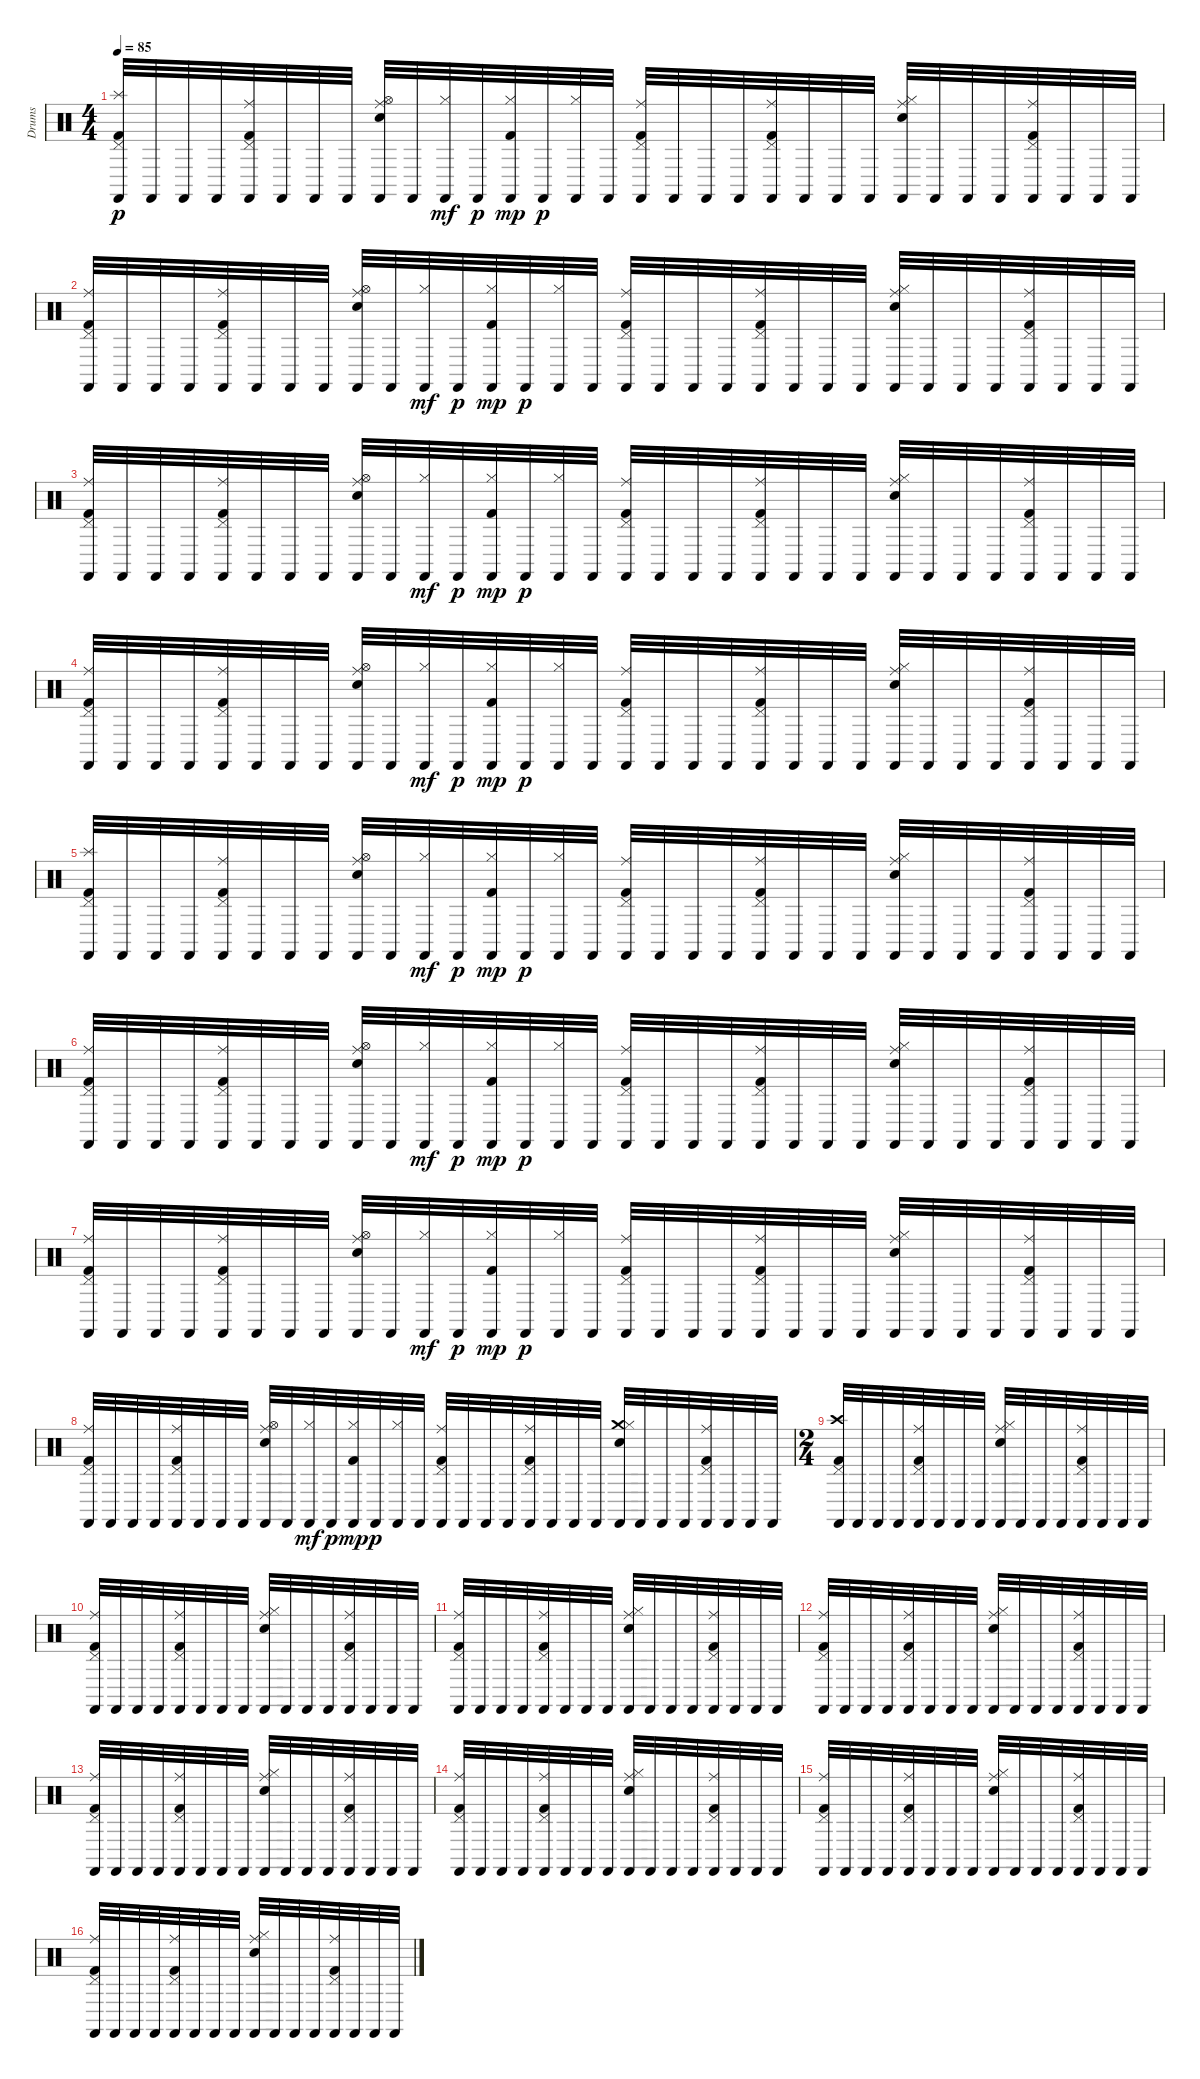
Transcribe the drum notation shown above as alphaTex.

\track ("Drums" "Drums") {instrument percussion}
\staff {score}
\articulation defaults
\ts (4 4)
\tempo 85
\clef neutral
\ks c
("Splash (hit)" "Castanets (hit)" "Pedal Hi-Hat (hit)" "Kick (hit) 2").32{dy p} "Castanets (hit)".32 "Castanets (hit)".32 "Castanets (hit)".32 ("Ride (middle)" "Castanets (hit)" "Pedal Hi-Hat (hit)" "Kick (hit) 2").32 "Castanets (hit)".32 "Castanets (hit)".32 "Castanets (hit)".32 ("Ride (middle)" "Castanets (hit)" "Hi-Hat (open)" "Electric Snare (hit)").32 "Castanets (hit)".32 ("Castanets (hit)" "Hi-Hat (closed)").32{dy mf} "Castanets (hit)".32{dy p} ("Castanets (hit)" "Hi-Hat (closed)" "Kick (hit) 2").32{dy mp} "Castanets (hit)".32{dy p} ("Castanets (hit)" "Hi-Hat (closed)").32 "Castanets (hit)".32 ("Ride (middle)" "Castanets (hit)" "Pedal Hi-Hat (hit)" "Kick (hit) 2").32 "Castanets (hit)".32 "Castanets (hit)".32 "Castanets (hit)".32 ("Ride (middle)" "Castanets (hit)" "Pedal Hi-Hat (hit)" "Kick (hit) 2").32 "Castanets (hit)".32 "Castanets (hit)".32 "Castanets (hit)".32 ("Ride (middle)" "Castanets (hit)" "Hi-Hat (closed)" "Electric Snare (hit)").32 "Castanets (hit)".32 "Castanets (hit)".32 "Castanets (hit)".32 ("Ride (middle)" "Castanets (hit)" "Pedal Hi-Hat (hit)" "Kick (hit) 2").32 "Castanets (hit)".32 "Castanets (hit)".32 "Castanets (hit)".32 |
("Ride (middle)" "Castanets (hit)" "Pedal Hi-Hat (hit)" "Kick (hit) 2").32 "Castanets (hit)".32 "Castanets (hit)".32 "Castanets (hit)".32 ("Ride (middle)" "Castanets (hit)" "Pedal Hi-Hat (hit)" "Kick (hit) 2").32 "Castanets (hit)".32 "Castanets (hit)".32 "Castanets (hit)".32 ("Ride (middle)" "Castanets (hit)" "Hi-Hat (open)" "Electric Snare (hit)").32 "Castanets (hit)".32 ("Castanets (hit)" "Hi-Hat (closed)").32{dy mf} "Castanets (hit)".32{dy p} ("Castanets (hit)" "Hi-Hat (closed)" "Kick (hit) 2").32{dy mp} "Castanets (hit)".32{dy p} ("Castanets (hit)" "Hi-Hat (closed)").32 "Castanets (hit)".32 ("Ride (middle)" "Castanets (hit)" "Pedal Hi-Hat (hit)" "Kick (hit) 2").32 "Castanets (hit)".32 "Castanets (hit)".32 "Castanets (hit)".32 ("Ride (middle)" "Castanets (hit)" "Pedal Hi-Hat (hit)" "Kick (hit) 2").32 "Castanets (hit)".32 "Castanets (hit)".32 "Castanets (hit)".32 ("Ride (middle)" "Castanets (hit)" "Hi-Hat (closed)" "Electric Snare (hit)").32 "Castanets (hit)".32 "Castanets (hit)".32 "Castanets (hit)".32 ("Ride (middle)" "Castanets (hit)" "Pedal Hi-Hat (hit)" "Kick (hit) 2").32 "Castanets (hit)".32 "Castanets (hit)".32 "Castanets (hit)".32 |
("Ride (middle)" "Castanets (hit)" "Pedal Hi-Hat (hit)" "Kick (hit) 2").32 "Castanets (hit)".32 "Castanets (hit)".32 "Castanets (hit)".32 ("Ride (middle)" "Castanets (hit)" "Pedal Hi-Hat (hit)" "Kick (hit) 2").32 "Castanets (hit)".32 "Castanets (hit)".32 "Castanets (hit)".32 ("Ride (middle)" "Castanets (hit)" "Hi-Hat (open)" "Electric Snare (hit)").32 "Castanets (hit)".32 ("Castanets (hit)" "Hi-Hat (closed)").32{dy mf} "Castanets (hit)".32{dy p} ("Castanets (hit)" "Hi-Hat (closed)" "Kick (hit) 2").32{dy mp} "Castanets (hit)".32{dy p} ("Castanets (hit)" "Hi-Hat (closed)").32 "Castanets (hit)".32 ("Ride (middle)" "Castanets (hit)" "Pedal Hi-Hat (hit)" "Kick (hit) 2").32 "Castanets (hit)".32 "Castanets (hit)".32 "Castanets (hit)".32 ("Ride (middle)" "Castanets (hit)" "Pedal Hi-Hat (hit)" "Kick (hit) 2").32 "Castanets (hit)".32 "Castanets (hit)".32 "Castanets (hit)".32 ("Ride (middle)" "Castanets (hit)" "Hi-Hat (closed)" "Electric Snare (hit)").32 "Castanets (hit)".32 "Castanets (hit)".32 "Castanets (hit)".32 ("Ride (middle)" "Castanets (hit)" "Pedal Hi-Hat (hit)" "Kick (hit) 2").32 "Castanets (hit)".32 "Castanets (hit)".32 "Castanets (hit)".32 |
("Ride (middle)" "Castanets (hit)" "Pedal Hi-Hat (hit)" "Kick (hit) 2").32 "Castanets (hit)".32 "Castanets (hit)".32 "Castanets (hit)".32 ("Ride (middle)" "Castanets (hit)" "Pedal Hi-Hat (hit)" "Kick (hit) 2").32 "Castanets (hit)".32 "Castanets (hit)".32 "Castanets (hit)".32 ("Ride (middle)" "Castanets (hit)" "Hi-Hat (open)" "Electric Snare (hit)").32 "Castanets (hit)".32 ("Castanets (hit)" "Hi-Hat (closed)").32{dy mf} "Castanets (hit)".32{dy p} ("Castanets (hit)" "Hi-Hat (closed)" "Kick (hit) 2").32{dy mp} "Castanets (hit)".32{dy p} ("Castanets (hit)" "Hi-Hat (closed)").32 "Castanets (hit)".32 ("Ride (middle)" "Castanets (hit)" "Pedal Hi-Hat (hit)" "Kick (hit) 2").32 "Castanets (hit)".32 "Castanets (hit)".32 "Castanets (hit)".32 ("Ride (middle)" "Castanets (hit)" "Pedal Hi-Hat (hit)" "Kick (hit) 2").32 "Castanets (hit)".32 "Castanets (hit)".32 "Castanets (hit)".32 ("Ride (middle)" "Castanets (hit)" "Hi-Hat (closed)" "Electric Snare (hit)").32 "Castanets (hit)".32 "Castanets (hit)".32 "Castanets (hit)".32 ("Ride (middle)" "Castanets (hit)" "Pedal Hi-Hat (hit)" "Kick (hit) 2").32 "Castanets (hit)".32 "Castanets (hit)".32 "Castanets (hit)".32 |
("Splash (hit)" "Castanets (hit)" "Pedal Hi-Hat (hit)" "Kick (hit) 2").32 "Castanets (hit)".32 "Castanets (hit)".32 "Castanets (hit)".32 ("Ride (middle)" "Castanets (hit)" "Pedal Hi-Hat (hit)" "Kick (hit) 2").32 "Castanets (hit)".32 "Castanets (hit)".32 "Castanets (hit)".32 ("Ride (middle)" "Castanets (hit)" "Hi-Hat (open)" "Electric Snare (hit)").32 "Castanets (hit)".32 ("Castanets (hit)" "Hi-Hat (closed)").32{dy mf} "Castanets (hit)".32{dy p} ("Castanets (hit)" "Hi-Hat (closed)" "Kick (hit) 2").32{dy mp} "Castanets (hit)".32{dy p} ("Castanets (hit)" "Hi-Hat (closed)").32 "Castanets (hit)".32 ("Ride (middle)" "Castanets (hit)" "Pedal Hi-Hat (hit)" "Kick (hit) 2").32 "Castanets (hit)".32 "Castanets (hit)".32 "Castanets (hit)".32 ("Ride (middle)" "Castanets (hit)" "Pedal Hi-Hat (hit)" "Kick (hit) 2").32 "Castanets (hit)".32 "Castanets (hit)".32 "Castanets (hit)".32 ("Ride (middle)" "Castanets (hit)" "Hi-Hat (closed)" "Electric Snare (hit)").32 "Castanets (hit)".32 "Castanets (hit)".32 "Castanets (hit)".32 ("Ride (middle)" "Castanets (hit)" "Pedal Hi-Hat (hit)" "Kick (hit) 2").32 "Castanets (hit)".32 "Castanets (hit)".32 "Castanets (hit)".32 |
("Ride (middle)" "Castanets (hit)" "Pedal Hi-Hat (hit)" "Kick (hit) 2").32 "Castanets (hit)".32 "Castanets (hit)".32 "Castanets (hit)".32 ("Ride (middle)" "Castanets (hit)" "Pedal Hi-Hat (hit)" "Kick (hit) 2").32 "Castanets (hit)".32 "Castanets (hit)".32 "Castanets (hit)".32 ("Ride (middle)" "Castanets (hit)" "Hi-Hat (open)" "Electric Snare (hit)").32 "Castanets (hit)".32 ("Castanets (hit)" "Hi-Hat (closed)").32{dy mf} "Castanets (hit)".32{dy p} ("Castanets (hit)" "Hi-Hat (closed)" "Kick (hit) 2").32{dy mp} "Castanets (hit)".32{dy p} ("Castanets (hit)" "Hi-Hat (closed)").32 "Castanets (hit)".32 ("Ride (middle)" "Castanets (hit)" "Pedal Hi-Hat (hit)" "Kick (hit) 2").32 "Castanets (hit)".32 "Castanets (hit)".32 "Castanets (hit)".32 ("Ride (middle)" "Castanets (hit)" "Pedal Hi-Hat (hit)" "Kick (hit) 2").32 "Castanets (hit)".32 "Castanets (hit)".32 "Castanets (hit)".32 ("Ride (middle)" "Castanets (hit)" "Hi-Hat (closed)" "Electric Snare (hit)").32 "Castanets (hit)".32 "Castanets (hit)".32 "Castanets (hit)".32 ("Ride (middle)" "Castanets (hit)" "Pedal Hi-Hat (hit)" "Kick (hit) 2").32 "Castanets (hit)".32 "Castanets (hit)".32 "Castanets (hit)".32 |
("Ride (middle)" "Castanets (hit)" "Pedal Hi-Hat (hit)" "Kick (hit) 2").32 "Castanets (hit)".32 "Castanets (hit)".32 "Castanets (hit)".32 ("Ride (middle)" "Castanets (hit)" "Pedal Hi-Hat (hit)" "Kick (hit) 2").32 "Castanets (hit)".32 "Castanets (hit)".32 "Castanets (hit)".32 ("Ride (middle)" "Castanets (hit)" "Hi-Hat (open)" "Electric Snare (hit)").32 "Castanets (hit)".32 ("Castanets (hit)" "Hi-Hat (closed)").32{dy mf} "Castanets (hit)".32{dy p} ("Castanets (hit)" "Hi-Hat (closed)" "Kick (hit) 2").32{dy mp} "Castanets (hit)".32{dy p} ("Castanets (hit)" "Hi-Hat (closed)").32 "Castanets (hit)".32 ("Ride (middle)" "Castanets (hit)" "Pedal Hi-Hat (hit)" "Kick (hit) 2").32 "Castanets (hit)".32 "Castanets (hit)".32 "Castanets (hit)".32 ("Ride (middle)" "Castanets (hit)" "Pedal Hi-Hat (hit)" "Kick (hit) 2").32 "Castanets (hit)".32 "Castanets (hit)".32 "Castanets (hit)".32 ("Ride (middle)" "Castanets (hit)" "Hi-Hat (closed)" "Electric Snare (hit)").32 "Castanets (hit)".32 "Castanets (hit)".32 "Castanets (hit)".32 ("Ride (middle)" "Castanets (hit)" "Pedal Hi-Hat (hit)" "Kick (hit) 2").32 "Castanets (hit)".32 "Castanets (hit)".32 "Castanets (hit)".32 |
("Ride (middle)" "Castanets (hit)" "Pedal Hi-Hat (hit)" "Kick (hit) 2").32 "Castanets (hit)".32 "Castanets (hit)".32 "Castanets (hit)".32 ("Ride (middle)" "Castanets (hit)" "Pedal Hi-Hat (hit)" "Kick (hit) 2").32 "Castanets (hit)".32 "Castanets (hit)".32 "Castanets (hit)".32 ("Ride (middle)" "Castanets (hit)" "Hi-Hat (open)" "Electric Snare (hit)").32 "Castanets (hit)".32 ("Castanets (hit)" "Hi-Hat (closed)").32{dy mf} "Castanets (hit)".32{dy p} ("Castanets (hit)" "Hi-Hat (closed)" "Kick (hit) 2").32{dy mp} "Castanets (hit)".32{dy p} ("Castanets (hit)" "Hi-Hat (closed)").32 "Castanets (hit)".32 ("Ride (middle)" "Castanets (hit)" "Pedal Hi-Hat (hit)" "Kick (hit) 2").32 "Castanets (hit)".32 "Castanets (hit)".32 "Castanets (hit)".32 ("Ride (middle)" "Castanets (hit)" "Pedal Hi-Hat (hit)" "Kick (hit) 2").32 "Castanets (hit)".32 "Castanets (hit)".32 "Castanets (hit)".32 ("Crash medium (hit)" "Castanets (hit)" "Hi-Hat (closed)" "Electric Snare (hit)").32 "Castanets (hit)".32 "Castanets (hit)".32 "Castanets (hit)".32 ("Ride (middle)" "Castanets (hit)" "Pedal Hi-Hat (hit)" "Kick (hit) 2").32 "Castanets (hit)".32 "Castanets (hit)".32 "Castanets (hit)".32 |
\ts (2 4)
("Crash high (hit)" "Castanets (hit)" "Pedal Hi-Hat (hit)" "Kick (hit) 2").32 "Castanets (hit)".32 "Castanets (hit)".32 "Castanets (hit)".32 ("Ride (middle)" "Castanets (hit)" "Pedal Hi-Hat (hit)" "Kick (hit) 2").32 "Castanets (hit)".32 "Castanets (hit)".32 "Castanets (hit)".32 ("Ride (middle)" "Castanets (hit)" "Hi-Hat (closed)" "Electric Snare (hit)").32 "Castanets (hit)".32 "Castanets (hit)".32 "Castanets (hit)".32 ("Ride (middle)" "Castanets (hit)" "Pedal Hi-Hat (hit)" "Kick (hit) 2").32 "Castanets (hit)".32 "Castanets (hit)".32 "Castanets (hit)".32 |
("Ride (middle)" "Castanets (hit)" "Pedal Hi-Hat (hit)" "Kick (hit) 2").32 "Castanets (hit)".32 "Castanets (hit)".32 "Castanets (hit)".32 ("Ride (middle)" "Castanets (hit)" "Pedal Hi-Hat (hit)" "Kick (hit) 2").32 "Castanets (hit)".32 "Castanets (hit)".32 "Castanets (hit)".32 ("Ride (middle)" "Castanets (hit)" "Hi-Hat (closed)" "Electric Snare (hit)").32 "Castanets (hit)".32 "Castanets (hit)".32 "Castanets (hit)".32 ("Ride (middle)" "Castanets (hit)" "Pedal Hi-Hat (hit)" "Kick (hit) 2").32 "Castanets (hit)".32 "Castanets (hit)".32 "Castanets (hit)".32 |
("Ride (middle)" "Castanets (hit)" "Pedal Hi-Hat (hit)" "Kick (hit) 2").32 "Castanets (hit)".32 "Castanets (hit)".32 "Castanets (hit)".32 ("Ride (middle)" "Castanets (hit)" "Pedal Hi-Hat (hit)" "Kick (hit) 2").32 "Castanets (hit)".32 "Castanets (hit)".32 "Castanets (hit)".32 ("Ride (middle)" "Castanets (hit)" "Hi-Hat (closed)" "Electric Snare (hit)").32 "Castanets (hit)".32 "Castanets (hit)".32 "Castanets (hit)".32 ("Ride (middle)" "Castanets (hit)" "Pedal Hi-Hat (hit)" "Kick (hit) 2").32 "Castanets (hit)".32 "Castanets (hit)".32 "Castanets (hit)".32 |
("Ride (middle)" "Castanets (hit)" "Pedal Hi-Hat (hit)" "Kick (hit) 2").32 "Castanets (hit)".32 "Castanets (hit)".32 "Castanets (hit)".32 ("Ride (middle)" "Castanets (hit)" "Pedal Hi-Hat (hit)" "Kick (hit) 2").32 "Castanets (hit)".32 "Castanets (hit)".32 "Castanets (hit)".32 ("Ride (middle)" "Castanets (hit)" "Hi-Hat (closed)" "Electric Snare (hit)").32 "Castanets (hit)".32 "Castanets (hit)".32 "Castanets (hit)".32 ("Ride (middle)" "Castanets (hit)" "Pedal Hi-Hat (hit)" "Kick (hit) 2").32 "Castanets (hit)".32 "Castanets (hit)".32 "Castanets (hit)".32 |
("Ride (middle)" "Castanets (hit)" "Pedal Hi-Hat (hit)" "Kick (hit) 2").32 "Castanets (hit)".32 "Castanets (hit)".32 "Castanets (hit)".32 ("Ride (middle)" "Castanets (hit)" "Pedal Hi-Hat (hit)" "Kick (hit) 2").32 "Castanets (hit)".32 "Castanets (hit)".32 "Castanets (hit)".32 ("Ride (middle)" "Castanets (hit)" "Hi-Hat (closed)" "Electric Snare (hit)").32 "Castanets (hit)".32 "Castanets (hit)".32 "Castanets (hit)".32 ("Ride (middle)" "Castanets (hit)" "Pedal Hi-Hat (hit)" "Kick (hit) 2").32 "Castanets (hit)".32 "Castanets (hit)".32 "Castanets (hit)".32 |
("Ride (middle)" "Castanets (hit)" "Pedal Hi-Hat (hit)" "Kick (hit) 2").32 "Castanets (hit)".32 "Castanets (hit)".32 "Castanets (hit)".32 ("Ride (middle)" "Castanets (hit)" "Pedal Hi-Hat (hit)" "Kick (hit) 2").32 "Castanets (hit)".32 "Castanets (hit)".32 "Castanets (hit)".32 ("Ride (middle)" "Castanets (hit)" "Hi-Hat (closed)" "Electric Snare (hit)").32 "Castanets (hit)".32 "Castanets (hit)".32 "Castanets (hit)".32 ("Ride (middle)" "Castanets (hit)" "Pedal Hi-Hat (hit)" "Kick (hit) 2").32 "Castanets (hit)".32 "Castanets (hit)".32 "Castanets (hit)".32 |
("Ride (middle)" "Castanets (hit)" "Pedal Hi-Hat (hit)" "Kick (hit) 2").32 "Castanets (hit)".32 "Castanets (hit)".32 "Castanets (hit)".32 ("Ride (middle)" "Castanets (hit)" "Pedal Hi-Hat (hit)" "Kick (hit) 2").32 "Castanets (hit)".32 "Castanets (hit)".32 "Castanets (hit)".32 ("Ride (middle)" "Castanets (hit)" "Hi-Hat (closed)" "Electric Snare (hit)").32 "Castanets (hit)".32 "Castanets (hit)".32 "Castanets (hit)".32 ("Ride (middle)" "Castanets (hit)" "Pedal Hi-Hat (hit)" "Kick (hit) 2").32 "Castanets (hit)".32 "Castanets (hit)".32 "Castanets (hit)".32 |
("Ride (middle)" "Castanets (hit)" "Pedal Hi-Hat (hit)" "Kick (hit) 2").32 "Castanets (hit)".32 "Castanets (hit)".32 "Castanets (hit)".32 ("Ride (middle)" "Castanets (hit)" "Pedal Hi-Hat (hit)" "Kick (hit) 2").32 "Castanets (hit)".32 "Castanets (hit)".32 "Castanets (hit)".32 ("Ride (middle)" "Castanets (hit)" "Hi-Hat (closed)" "Electric Snare (hit)").32 "Castanets (hit)".32 "Castanets (hit)".32 "Castanets (hit)".32 ("Ride (middle)" "Castanets (hit)" "Pedal Hi-Hat (hit)" "Kick (hit) 2").32 "Castanets (hit)".32 "Castanets (hit)".32 "Castanets (hit)".32
